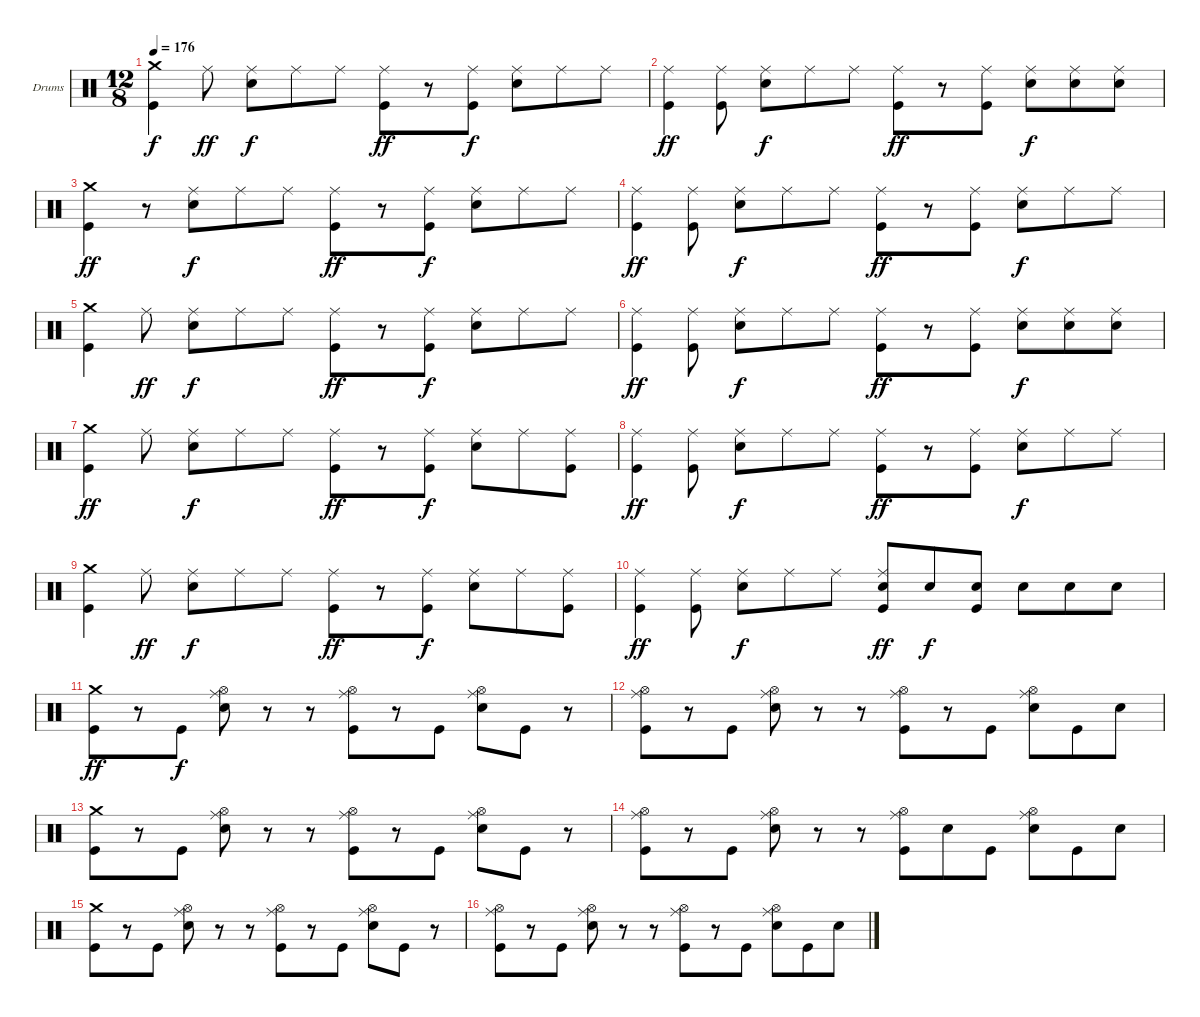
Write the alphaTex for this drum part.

\defaultSystemsLayout 4
\bracketExtendMode groupsimilarinstruments
\firstSystemTrackNameOrientation horizontal
\otherSystemsTrackNameOrientation horizontal
\track ("Drumkit" "Drums") {instrument percussion}
\staff {score}
\articulation defaults
\ts (12 8)
\tempo 176
\clef neutral
\scale
0.333333
\ks c
("Crash medium (hit)" "Kick (hit)").4{dy f} "Ride (middle)".8{dy ff} ("Ride (middle)" "Snare (hit) 2").8{dy f} "Ride (middle)".8 "Ride (middle)".8 ("Ride (middle)" "Kick (hit)").8{dy ff} r.8 ("Ride (middle)" "Kick (hit)").8{dy f} ("Ride (middle)" "Snare (hit) 2").8 "Ride (middle)".8 "Ride (middle)".8 |
\scale
0.333333 ("Ride (middle)" "Kick (hit)").4{dy ff} ("Ride (middle)" "Kick (hit)").8 ("Ride (middle)" "Snare (hit) 2").8{dy f} "Ride (middle)".8 "Ride (middle)".8 ("Ride (middle)" "Kick (hit)").8{dy ff} r.8 ("Ride (middle)" "Kick (hit)").8 ("Ride (middle)" "Snare (hit) 2").8{dy f} ("Ride (middle)" "Snare (hit) 2").8 ("Ride (middle)" "Snare (hit) 2").8 |
\scale
0.333333 ("Crash medium (hit)" "Kick (hit)").4{dy ff} r.8 ("Ride (middle)" "Snare (hit) 2").8{dy f} "Ride (middle)".8 "Ride (middle)".8 ("Ride (middle)" "Kick (hit)").8{dy ff} r.8 ("Ride (middle)" "Kick (hit)").8{dy f} ("Ride (middle)" "Snare (hit) 2").8 "Ride (middle)".8 "Ride (middle)".8 |
\scale
0.333333 ("Ride (middle)" "Kick (hit)").4{dy ff} ("Ride (middle)" "Kick (hit)").8 ("Ride (middle)" "Snare (hit) 2").8{dy f} "Ride (middle)".8 "Ride (middle)".8 ("Ride (middle)" "Kick (hit)").8{dy ff} r.8 ("Ride (middle)" "Kick (hit)").8 ("Ride (middle)" "Snare (hit) 2").8{dy f} "Ride (middle)".8 "Ride (middle)".8 |
\scale
0.333333 ("Crash medium (hit)" "Kick (hit)").4 "Ride (middle)".8{dy ff} ("Ride (middle)" "Snare (hit) 2").8{dy f} "Ride (middle)".8 "Ride (middle)".8 ("Ride (middle)" "Kick (hit)").8{dy ff} r.8 ("Ride (middle)" "Kick (hit)").8{dy f} ("Ride (middle)" "Snare (hit) 2").8 "Ride (middle)".8 "Ride (middle)".8 |
\scale
0.333333 ("Ride (middle)" "Kick (hit)").4{dy ff} ("Ride (middle)" "Kick (hit)").8 ("Ride (middle)" "Snare (hit) 2").8{dy f} "Ride (middle)".8 "Ride (middle)".8 ("Ride (middle)" "Kick (hit)").8{dy ff} r.8 ("Ride (middle)" "Kick (hit)").8 ("Ride (middle)" "Snare (hit) 2").8{dy f} ("Ride (middle)" "Snare (hit) 2").8 ("Ride (middle)" "Snare (hit) 2").8 |
\scale
0.333333 ("Crash medium (hit)" "Kick (hit)").4{dy ff} "Ride (middle)".8 ("Ride (middle)" "Snare (hit) 2").8{dy f} "Ride (middle)".8 "Ride (middle)".8 ("Ride (middle)" "Kick (hit)").8{dy ff} r.8 ("Ride (middle)" "Kick (hit)").8{dy f} ("Ride (middle)" "Snare (hit) 2").8 "Ride (middle)".8 ("Ride (middle)" "Kick (hit)").8 |
\scale
0.333333 ("Ride (middle)" "Kick (hit)").4{dy ff} ("Ride (middle)" "Kick (hit)").8 ("Ride (middle)" "Snare (hit) 2").8{dy f} "Ride (middle)".8 "Ride (middle)".8 ("Ride (middle)" "Kick (hit)").8{dy ff} r.8 ("Ride (middle)" "Kick (hit)").8 ("Ride (middle)" "Snare (hit) 2").8{dy f} "Ride (middle)".8 "Ride (middle)".8 |
\scale
0.333333 ("Crash medium (hit)" "Kick (hit)").4 "Ride (middle)".8{dy ff} ("Ride (middle)" "Snare (hit) 2").8{dy f} "Ride (middle)".8 "Ride (middle)".8 ("Ride (middle)" "Kick (hit)").8{dy ff} r.8 ("Ride (middle)" "Kick (hit)").8{dy f} ("Ride (middle)" "Snare (hit) 2").8 "Ride (middle)".8 ("Ride (middle)" "Kick (hit)").8 |
\scale
0.333333 ("Ride (middle)" "Kick (hit)").4{dy ff} ("Ride (middle)" "Kick (hit)").8 ("Ride (middle)" "Snare (hit) 2").8{dy f} "Ride (middle)".8 "Ride (middle)".8 ("Ride (middle)" "Snare (hit) 2" "Kick (hit)").8{dy ff} "Snare (hit) 2".8{dy f} ("Snare (hit) 2" "Kick (hit)").8 "Snare (hit) 2".8 "Snare (hit) 2".8 "Snare (hit) 2".8 |
\scale
0.333333 ("Crash medium (hit)" "Kick (hit)").8{dy ff} r.8 "Kick (hit)".8{dy f} ("Ride (middle)" "Hi-Hat (open)" "Snare (hit) 2").8 r.8 r.8 ("Ride (middle)" "Hi-Hat (open)" "Kick (hit)").8 r.8 "Kick (hit)".8 ("Ride (middle)" "Hi-Hat (open)" "Snare (hit) 2").8 "Kick (hit)".8 r.8 |
\scale
0.333333 ("Ride (middle)" "Hi-Hat (open)" "Kick (hit)").8 r.8 "Kick (hit)".8 ("Ride (middle)" "Hi-Hat (open)" "Snare (hit) 2").8 r.8 r.8 ("Ride (middle)" "Hi-Hat (open)" "Kick (hit)").8 r.8 "Kick (hit)".8 ("Ride (middle)" "Hi-Hat (open)" "Snare (hit) 2").8 "Kick (hit)".8 "Snare (hit) 2".8 |
\scale
0.333333 ("Crash medium (hit)" "Kick (hit)").8 r.8 "Kick (hit)".8 ("Ride (middle)" "Hi-Hat (open)" "Snare (hit) 2").8 r.8 r.8 ("Ride (middle)" "Hi-Hat (open)" "Kick (hit)").8 r.8 "Kick (hit)".8 ("Ride (middle)" "Hi-Hat (open)" "Snare (hit) 2").8 "Kick (hit)".8 r.8 |
\scale
0.333333 ("Ride (middle)" "Hi-Hat (open)" "Kick (hit)").8 r.8 "Kick (hit)".8 ("Ride (middle)" "Hi-Hat (open)" "Snare (hit) 2").8 r.8 r.8 ("Ride (middle)" "Hi-Hat (open)" "Kick (hit)").8 "Snare (hit) 2".8 "Kick (hit)".8 ("Ride (middle)" "Hi-Hat (open)" "Snare (hit) 2").8 "Kick (hit)".8 "Snare (hit) 2".8 |
\scale
0.333333 ("Crash medium (hit)" "Kick (hit)").8 r.8 "Kick (hit)".8 ("Ride (middle)" "Hi-Hat (open)" "Snare (hit) 2").8 r.8 r.8 ("Ride (middle)" "Hi-Hat (open)" "Kick (hit)").8 r.8 "Kick (hit)".8 ("Ride (middle)" "Hi-Hat (open)" "Snare (hit) 2").8 "Kick (hit)".8 r.8 |
\scale
0.333333 ("Ride (middle)" "Hi-Hat (open)" "Kick (hit)").8 r.8 "Kick (hit)".8 ("Ride (middle)" "Hi-Hat (open)" "Snare (hit) 2").8 r.8 r.8 ("Ride (middle)" "Hi-Hat (open)" "Kick (hit)").8 r.8 "Kick (hit)".8 ("Ride (middle)" "Hi-Hat (open)" "Snare (hit) 2").8 "Kick (hit)".8 "Snare (hit) 2".8
